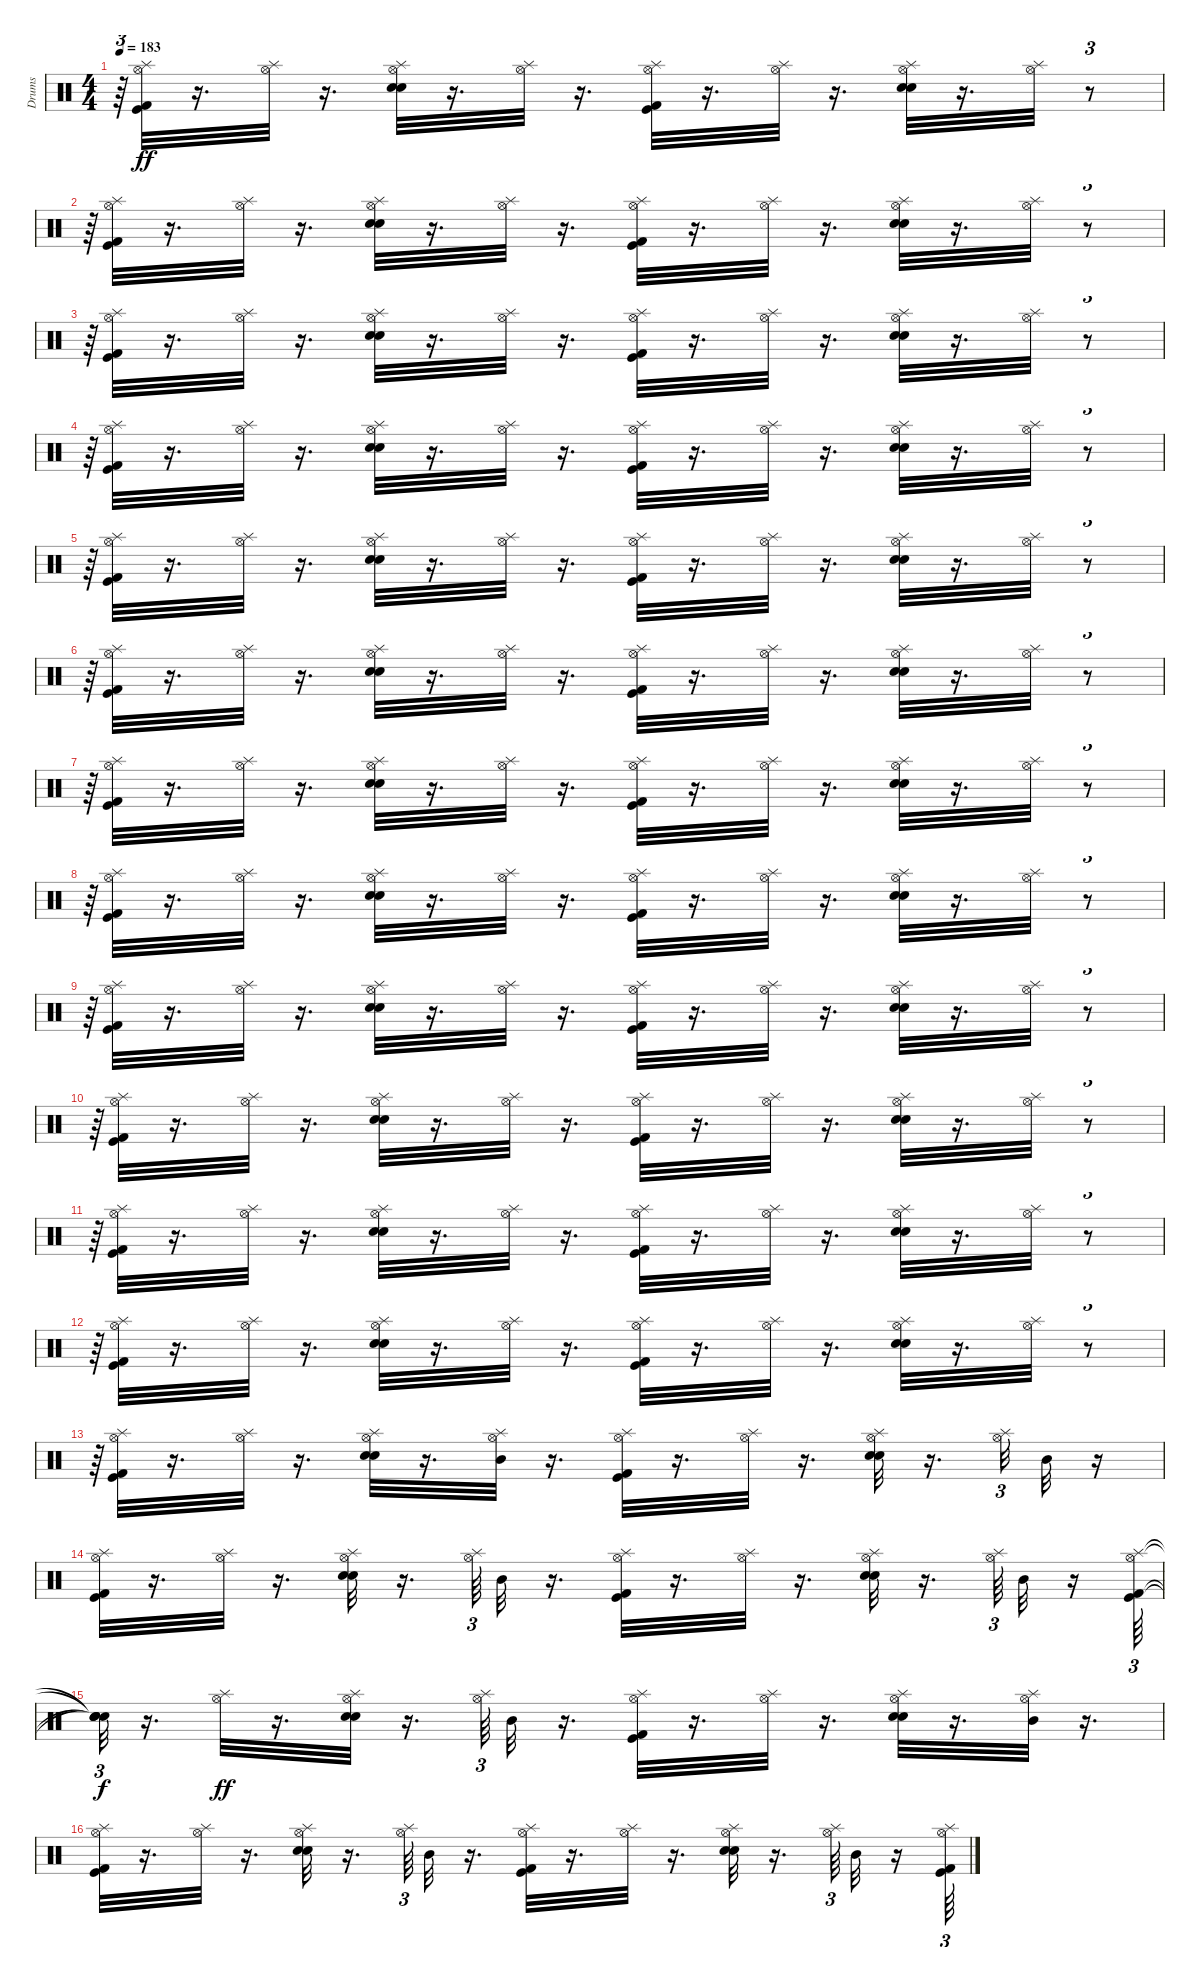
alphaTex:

\track ("Drums" "Drums") {instrument percussion}
\staff {score}
\articulation defaults
\ts (4 4)
\tempo 183
\clef neutral
\ks c
r.64{tu (3 2) dy ff} ("Hi-Hat (open)" "Splash (hit)" "Kick (hit)" "Kick (hit) 2").32 r.16{d} ("Splash (hit)" "Hi-Hat (open)").32 r.16{d} ("Electric Snare (hit)" "Hi-Hat (open)" "Splash (hit)" "Snare (hit) 2").32 r.16{d} ("Splash (hit)" "Hi-Hat (open)").32 r.16{d} ("Kick (hit) 2" "Hi-Hat (open)" "Kick (hit)" "Splash (hit)").32 r.16{d} ("Hi-Hat (open)" "Splash (hit)").32 r.16{d} ("Splash (hit)" "Electric Snare (hit)" "Hi-Hat (open)" "Snare (hit) 2").32 r.16{d} ("Hi-Hat (open)" "Splash (hit)").32 r.8{tu (3 2)} |
r.64{tu (3 2)} ("Hi-Hat (open)" "Kick (hit) 2" "Splash (hit)" "Kick (hit)").32 r.16{d} ("Splash (hit)" "Hi-Hat (open)").32 r.16{d} ("Snare (hit) 2" "Hi-Hat (open)" "Electric Snare (hit)" "Splash (hit)").32 r.16{d} ("Hi-Hat (open)" "Splash (hit)").32 r.16{d} ("Kick (hit) 2" "Kick (hit)" "Hi-Hat (open)" "Splash (hit)").32 r.16{d} ("Splash (hit)" "Hi-Hat (open)").32 r.16{d} ("Hi-Hat (open)" "Snare (hit) 2" "Electric Snare (hit)" "Splash (hit)").32 r.16{d} ("Splash (hit)" "Hi-Hat (open)").32 r.8{tu (3 2)} |
r.64{tu (3 2)} ("Kick (hit) 2" "Hi-Hat (open)" "Kick (hit)" "Splash (hit)").32 r.16{d} ("Splash (hit)" "Hi-Hat (open)").32 r.16{d} ("Hi-Hat (open)" "Splash (hit)" "Snare (hit) 2" "Electric Snare (hit)").32 r.16{d} ("Hi-Hat (open)" "Splash (hit)").32 r.16{d} ("Hi-Hat (open)" "Splash (hit)" "Kick (hit)" "Kick (hit) 2").32 r.16{d} ("Hi-Hat (open)" "Splash (hit)").32 r.16{d} ("Snare (hit) 2" "Splash (hit)" "Hi-Hat (open)" "Electric Snare (hit)").32 r.16{d} ("Hi-Hat (open)" "Splash (hit)").32 r.8{tu (3 2)} |
r.64{tu (3 2)} ("Hi-Hat (open)" "Kick (hit)" "Kick (hit) 2" "Splash (hit)").32 r.16{d} ("Hi-Hat (open)" "Splash (hit)").32 r.16{d} ("Hi-Hat (open)" "Snare (hit) 2" "Electric Snare (hit)" "Splash (hit)").32 r.16{d} ("Splash (hit)" "Hi-Hat (open)").32 r.16{d} ("Hi-Hat (open)" "Splash (hit)" "Kick (hit)" "Kick (hit) 2").32 r.16{d} ("Hi-Hat (open)" "Splash (hit)").32 r.16{d} ("Snare (hit) 2" "Hi-Hat (open)" "Electric Snare (hit)" "Splash (hit)").32 r.16{d} ("Splash (hit)" "Hi-Hat (open)").32 r.8{tu (3 2)} |
r.64{tu (3 2)} ("Kick (hit) 2" "Hi-Hat (open)" "Kick (hit)" "Splash (hit)").32 r.16{d} ("Splash (hit)" "Hi-Hat (open)").32 r.16{d} ("Splash (hit)" "Snare (hit) 2" "Electric Snare (hit)" "Hi-Hat (open)").32 r.16{d} ("Hi-Hat (open)" "Splash (hit)").32 r.16{d} ("Splash (hit)" "Kick (hit) 2" "Hi-Hat (open)" "Kick (hit)").32 r.16{d} ("Splash (hit)" "Hi-Hat (open)").32 r.16{d} ("Hi-Hat (open)" "Electric Snare (hit)" "Snare (hit) 2" "Splash (hit)").32 r.16{d} ("Hi-Hat (open)" "Splash (hit)").32 r.8{tu (3 2)} |
r.64{tu (3 2)} ("Kick (hit)" "Hi-Hat (open)" "Kick (hit) 2" "Splash (hit)").32 r.16{d} ("Splash (hit)" "Hi-Hat (open)").32 r.16{d} ("Snare (hit) 2" "Hi-Hat (open)" "Electric Snare (hit)" "Splash (hit)").32 r.16{d} ("Hi-Hat (open)" "Splash (hit)").32 r.16{d} ("Splash (hit)" "Hi-Hat (open)" "Kick (hit) 2" "Kick (hit)").32 r.16{d} ("Hi-Hat (open)" "Splash (hit)").32 r.16{d} ("Electric Snare (hit)" "Hi-Hat (open)" "Splash (hit)" "Snare (hit) 2").32 r.16{d} ("Hi-Hat (open)" "Splash (hit)").32 r.8{tu (3 2)} |
r.64{tu (3 2)} ("Splash (hit)" "Hi-Hat (open)" "Kick (hit)" "Kick (hit) 2").32 r.16{d} ("Hi-Hat (open)" "Splash (hit)").32 r.16{d} ("Hi-Hat (open)" "Splash (hit)" "Snare (hit) 2" "Electric Snare (hit)").32 r.16{d} ("Splash (hit)" "Hi-Hat (open)").32 r.16{d} ("Kick (hit) 2" "Hi-Hat (open)" "Splash (hit)" "Kick (hit)").32 r.16{d} ("Hi-Hat (open)" "Splash (hit)").32 r.16{d} ("Splash (hit)" "Electric Snare (hit)" "Hi-Hat (open)" "Snare (hit) 2").32 r.16{d} ("Splash (hit)" "Hi-Hat (open)").32{volume 11} r.8{tu (3 2)} |
r.64{tu (3 2)} ("Hi-Hat (open)" "Kick (hit) 2" "Splash (hit)" "Kick (hit)").32 r.16{d} ("Splash (hit)" "Hi-Hat (open)").32{volume 11} r.16{d} ("Snare (hit) 2" "Splash (hit)" "Hi-Hat (open)" "Electric Snare (hit)").32{volume 11} r.16{d} ("Splash (hit)" "Hi-Hat (open)").32{volume 11} r.16{d} ("Hi-Hat (open)" "Splash (hit)" "Kick (hit)" "Kick (hit) 2").32{volume 11} r.16{d} ("Splash (hit)" "Hi-Hat (open)").32 r.16{d} ("Electric Snare (hit)" "Hi-Hat (open)" "Splash (hit)" "Snare (hit) 2").32 r.16{d} ("Hi-Hat (open)" "Splash (hit)").32{volume 12} r.8{tu (3 2)} |
r.64{tu (3 2)} ("Kick (hit)" "Kick (hit) 2" "Splash (hit)" "Hi-Hat (open)").32{volume 12} r.16{d} ("Splash (hit)" "Hi-Hat (open)").32 r.16{d} ("Electric Snare (hit)" "Hi-Hat (open)" "Snare (hit) 2" "Splash (hit)").32{volume 12} r.16{d} ("Hi-Hat (open)" "Splash (hit)").32{volume 12} r.16{d} ("Splash (hit)" "Kick (hit)" "Hi-Hat (open)" "Kick (hit) 2").32 r.16{d} ("Hi-Hat (open)" "Splash (hit)").32{volume 12} r.16{d} ("Splash (hit)" "Electric Snare (hit)" "Snare (hit) 2" "Hi-Hat (open)").32{volume 12} r.16{d} ("Hi-Hat (open)" "Splash (hit)").32 r.8{tu (3 2)} |
r.64{tu (3 2)} ("Kick (hit) 2" "Hi-Hat (open)" "Kick (hit)" "Splash (hit)").32{volume 12} r.16{d} ("Splash (hit)" "Hi-Hat (open)").32{volume 12} r.16{d} ("Hi-Hat (open)" "Snare (hit) 2" "Splash (hit)" "Electric Snare (hit)").32 r.16{d} ("Hi-Hat (open)" "Splash (hit)").32{volume 12} r.16{d} ("Splash (hit)" "Hi-Hat (open)" "Kick (hit) 2" "Kick (hit)").32{volume 13} r.16{d} ("Hi-Hat (open)" "Splash (hit)").32{volume 13} r.16{d} ("Electric Snare (hit)" "Splash (hit)" "Hi-Hat (open)" "Snare (hit) 2").32{volume 13} r.16{d} ("Splash (hit)" "Hi-Hat (open)").32{volume 13} r.8{tu (3 2)} |
r.64{tu (3 2)} ("Kick (hit) 2" "Splash (hit)" "Kick (hit)" "Hi-Hat (open)").32 r.16{d} ("Hi-Hat (open)" "Splash (hit)").32 r.16{d} ("Snare (hit) 2" "Electric Snare (hit)" "Hi-Hat (open)" "Splash (hit)").32 r.16{d} ("Hi-Hat (open)" "Splash (hit)").32{volume 13} r.16{d} ("Splash (hit)" "Hi-Hat (open)" "Kick (hit) 2" "Kick (hit)").32 r.16{d} ("Hi-Hat (open)" "Splash (hit)").32{volume 13} r.16{d} ("Snare (hit) 2" "Hi-Hat (open)" "Splash (hit)" "Electric Snare (hit)").32 r.16{d} ("Hi-Hat (open)" "Splash (hit)").32 r.8{tu (3 2)} |
r.64{tu (3 2)} ("Kick (hit)" "Hi-Hat (open)" "Splash (hit)" "Kick (hit) 2").32 r.16{d} ("Splash (hit)" "Hi-Hat (open)").32 r.16{d} ("Snare (hit) 2" "Splash (hit)" "Electric Snare (hit)" "Hi-Hat (open)").32 r.16{d} ("Splash (hit)" "Hi-Hat (open)").32{volume 13} r.16{d} ("Hi-Hat (open)" "Kick (hit)" "Splash (hit)" "Kick (hit) 2").32 r.16{d} ("Splash (hit)" "Hi-Hat (open)").32 r.16{d} ("Snare (hit) 2" "Hi-Hat (open)" "Electric Snare (hit)" "Splash (hit)").32 r.16{d} ("Splash (hit)" "Hi-Hat (open)").32 r.8{tu (3 2)} |
r.64{tu (3 2)} ("Kick (hit) 2" "Kick (hit)" "Splash (hit)" "Hi-Hat (open)").32 r.16{d} ("Hi-Hat (open)" "Splash (hit)").32 r.16{d} ("Electric Snare (hit)" "Hi-Hat (open)" "Snare (hit) 2" "Splash (hit)").32 r.16{d} ("Mid Tom (hit)" "Splash (hit)" "Hi-Hat (open)").32 r.16{d} ("Kick (hit) 2" "Kick (hit)" "Splash (hit)" "Hi-Hat (open)").32 r.16{d} ("Hi-Hat (open)" "Splash (hit)").32 r.16{d} ("Splash (hit)" "Snare (hit) 2" "Electric Snare (hit)" "Hi-Hat (open)").32 r.16{d} ("Hi-Hat (open)" "Splash (hit)").32{tu (3 2)} "Mid Tom (hit)".32 r.16 |
("Kick (hit) 2" "Hi-Hat (open)" "Splash (hit)" "Kick (hit)").32 r.16{d} ("Splash (hit)" "Hi-Hat (open)").32 r.16{d} ("Hi-Hat (open)" "Splash (hit)" "Snare (hit) 2" "Electric Snare (hit)").32 r.16{d} ("Splash (hit)" "Hi-Hat (open)").64{tu (3 2)} "Mid Tom (hit)".32 r.16{d} ("Kick (hit)" "Hi-Hat (open)" "Kick (hit) 2" "Splash (hit)").32 r.16{d} ("Hi-Hat (open)" "Splash (hit)").32 r.16{d} ("Hi-Hat (open)" "Snare (hit) 2" "Electric Snare (hit)" "Splash (hit)").32 r.16{d} ("Hi-Hat (open)" "Splash (hit)").64{tu (3 2)} "Mid Tom (hit)".32 r.16 ("Splash (hit)" "Hi-Hat (open)" "Kick (hit) 2" "Kick (hit)").64{tu (3 2)} |
("Snare (hit)"{t} "Snare (hit)"{t} "Snare (hit)"{t} "Snare (hit)"{t}).32{tu (3 2) dy f} r.16{d} ("Hi-Hat (open)" "Splash (hit)").32{dy ff} r.16{d} ("Splash (hit)" "Hi-Hat (open)" "Snare (hit) 2" "Electric Snare (hit)").32 r.16{d} ("Splash (hit)" "Hi-Hat (open)").64{tu (3 2)} "Mid Tom (hit)".32 r.16{d} ("Splash (hit)" "Kick (hit)" "Kick (hit) 2" "Hi-Hat (open)").32 r.16{d} ("Splash (hit)" "Hi-Hat (open)").32 r.16{d} ("Snare (hit) 2" "Electric Snare (hit)" "Splash (hit)" "Hi-Hat (open)").32 r.16{d} ("Mid Tom (hit)" "Splash (hit)" "Hi-Hat (open)").32 r.16{d} |
("Kick (hit)" "Kick (hit) 2" "Splash (hit)" "Hi-Hat (open)").32 r.16{d} ("Hi-Hat (open)" "Splash (hit)").32 r.16{d} ("Electric Snare (hit)" "Hi-Hat (open)" "Splash (hit)" "Snare (hit) 2").32 r.16{d} ("Hi-Hat (open)" "Splash (hit)").64{tu (3 2)} "Mid Tom (hit)".32 r.16{d} ("Kick (hit)" "Hi-Hat (open)" "Kick (hit) 2" "Splash (hit)").32 r.16{d} ("Hi-Hat (open)" "Splash (hit)").32 r.16{d} ("Snare (hit) 2" "Splash (hit)" "Hi-Hat (open)" "Electric Snare (hit)").32 r.16{d} ("Splash (hit)" "Hi-Hat (open)").64{tu (3 2)} "Mid Tom (hit)".32 r.16 ("Hi-Hat (open)" "Kick (hit)" "Splash (hit)" "Kick (hit) 2").64{tu (3 2)}
